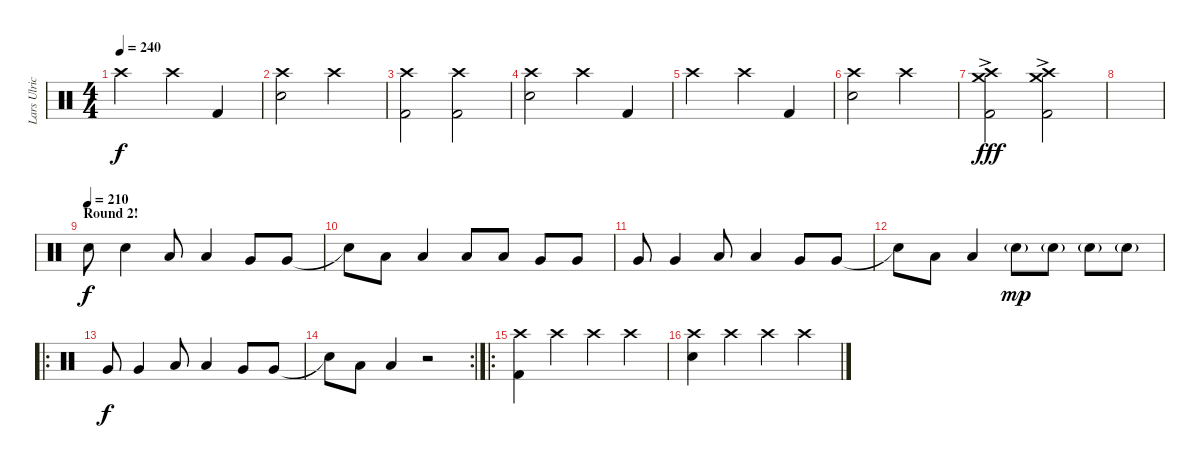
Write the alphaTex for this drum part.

\track ("Lars Ulrich" "Lars Ulric") {instrument percussion}
\staff {score}
\articulation defaults
\ts (4 4)
\tempo 240
\clef neutral
\ks c "Crash high (hit)".2{dy f} "Crash high (hit)".4 "Kick (hit) 2".4
|
("Crash high (hit)" "Snare (hit) 2").2 "Crash high (hit)".2 |
("Crash high (hit)" "Kick (hit) 2").2 ("Crash high (hit)" "Kick (hit) 2").2 |
("Crash high (hit)" "Snare (hit) 2").2 "Crash high (hit)".4 "Kick (hit) 2".4 |
"Crash high (hit)".2 "Crash high (hit)".4 "Kick (hit) 2".4 |
("Crash high (hit)" "Snare (hit) 2").2 "Crash high (hit)".2 |
("Crash high (hit)"{ac} "Crash medium (hit)"{ac} "Kick (hit) 2"{ac}).2{dy fff} ("Crash high (hit)"{ac} "Crash medium (hit)"{ac} "Kick (hit) 2"{ac}).2 |
|
\section ("" "Round 2!")
\tempo (210)
"Snare (hit) 2".8{dy f} "Snare (hit) 2".4 "Low Tom (hit)".8 "Low Tom (hit)".4 "Very Low Tom (hit)".8 "Very Low Tom (hit)".8 |
"Snare (hit)"{t}.8 "Low Floor Tom (hit)".8 "Low Floor Tom (hit)".4 "Low Tom (hit)".8 "Low Tom (hit)".8 "Very Low Tom (hit)".8 "Very Low Tom (hit)".8 |
"Very Low Tom (hit)".8 "Very Low Tom (hit)".4 "Low Tom (hit)".8 "Low Tom (hit)".4 "Very Low Tom (hit)".8 "Very Low Tom (hit)".8 |
"Snare (hit)"{t}.8 "Low Floor Tom (hit)".8 "Low Floor Tom (hit)".4 "Electric Snare (hit)"{g}.8{dy mp} "Electric Snare (hit)"{g}.8 "Electric Snare (hit)"{g}.8 "Electric Snare (hit)"{g}.8 |
\ro "Very Low Tom (hit)".8{dy f} "Very Low Tom (hit)".4 "Low Tom (hit)".8 "Low Tom (hit)".4 "Very Low Tom (hit)".8 "Very Low Tom (hit)".8
|
\rc 2 "Snare (hit)"{t}.8 "Low Floor Tom (hit)".8 "Low Floor Tom (hit)".4
r.2 |
\ro
("Crash high (hit)" "Kick (hit) 2").4 "Crash high (hit)".4 "Crash high (hit)".4 "Crash high (hit)".4 |
("Crash high (hit)" "Snare (hit) 2").4 "Crash high (hit)".4 "Crash high (hit)".4 "Crash high (hit)".4
